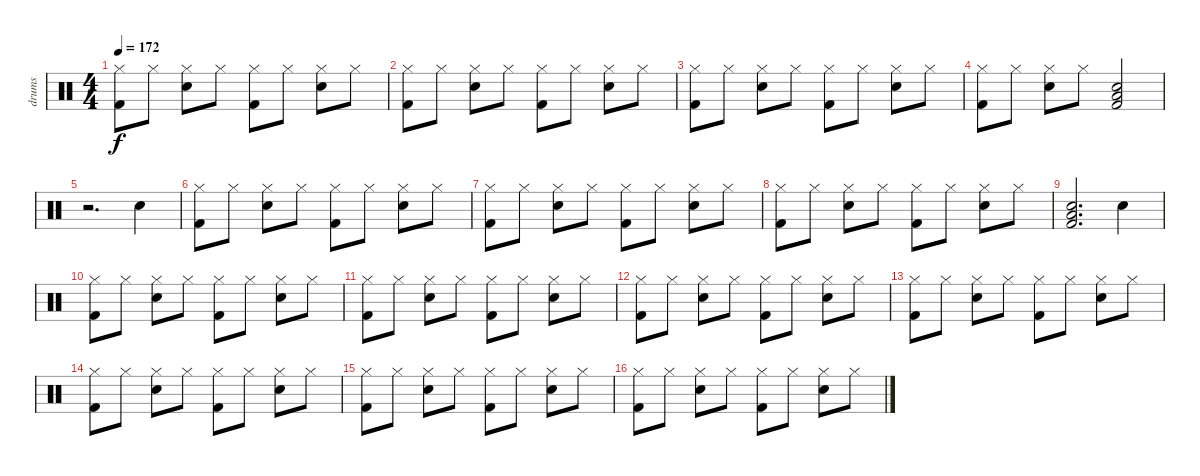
\track ("drums" "drums") {instrument percussion}
\staff {score}
\articulation defaults
\ts (4 4)
\tempo 172
\clef neutral
\ks c
("Hi-Hat (closed)" "Kick (hit) 2").8{dy f} "Hi-Hat (closed)".8 ("Hi-Hat (closed)" "Snare (hit) 2").8 "Hi-Hat (closed)".8 ("Hi-Hat (closed)" "Kick (hit) 2").8 "Hi-Hat (closed)".8 ("Hi-Hat (closed)" "Snare (hit) 2").8 "Hi-Hat (closed)".8 |
("Hi-Hat (closed)" "Kick (hit) 2").8 "Hi-Hat (closed)".8 ("Hi-Hat (closed)" "Snare (hit) 2").8 "Hi-Hat (closed)".8 ("Hi-Hat (closed)" "Kick (hit) 2").8 "Hi-Hat (closed)".8 ("Hi-Hat (closed)" "Snare (hit) 2").8 "Hi-Hat (closed)".8 |
("Hi-Hat (closed)" "Kick (hit) 2").8 "Hi-Hat (closed)".8 ("Hi-Hat (closed)" "Snare (hit) 2").8 "Hi-Hat (closed)".8 ("Hi-Hat (closed)" "Kick (hit) 2").8 "Hi-Hat (closed)".8 ("Hi-Hat (closed)" "Snare (hit) 2").8 "Hi-Hat (closed)".8 |
("Hi-Hat (closed)" "Kick (hit) 2").8 "Hi-Hat (closed)".8 ("Hi-Hat (closed)" "Snare (hit) 2").8 "Hi-Hat (closed)".8 ("Low Floor Tom (hit)" "Snare (hit) 2" "Kick (hit) 2").2 |
r.2{d} "Snare (hit) 2".4 |
("Hi-Hat (closed)" "Kick (hit) 2").8 "Hi-Hat (closed)".8 ("Hi-Hat (closed)" "Snare (hit) 2").8 "Hi-Hat (closed)".8 ("Hi-Hat (closed)" "Kick (hit) 2").8 "Hi-Hat (closed)".8 ("Hi-Hat (closed)" "Snare (hit) 2").8 "Hi-Hat (closed)".8 |
("Hi-Hat (closed)" "Kick (hit) 2").8 "Hi-Hat (closed)".8 ("Hi-Hat (closed)" "Snare (hit) 2").8 "Hi-Hat (closed)".8 ("Hi-Hat (closed)" "Kick (hit) 2").8 "Hi-Hat (closed)".8 ("Hi-Hat (closed)" "Snare (hit) 2").8 "Hi-Hat (closed)".8 |
("Hi-Hat (closed)" "Kick (hit) 2").8 "Hi-Hat (closed)".8 ("Hi-Hat (closed)" "Snare (hit) 2").8 "Hi-Hat (closed)".8 ("Hi-Hat (closed)" "Kick (hit) 2").8 "Hi-Hat (closed)".8 ("Hi-Hat (closed)" "Snare (hit) 2").8 "Hi-Hat (closed)".8 |
("Low Floor Tom (hit)" "Snare (hit) 2" "Kick (hit) 2").2{d} "Snare (hit) 2".4 |
("Hi-Hat (closed)" "Kick (hit) 2").8 "Hi-Hat (closed)".8 ("Hi-Hat (closed)" "Snare (hit) 2").8 "Hi-Hat (closed)".8 ("Hi-Hat (closed)" "Kick (hit) 2").8 "Hi-Hat (closed)".8 ("Hi-Hat (closed)" "Snare (hit) 2").8 "Hi-Hat (closed)".8 |
("Hi-Hat (closed)" "Kick (hit) 2").8 "Hi-Hat (closed)".8 ("Hi-Hat (closed)" "Snare (hit) 2").8 "Hi-Hat (closed)".8 ("Hi-Hat (closed)" "Kick (hit) 2").8 "Hi-Hat (closed)".8 ("Hi-Hat (closed)" "Snare (hit) 2").8 "Hi-Hat (closed)".8 |
("Hi-Hat (closed)" "Kick (hit) 2").8 "Hi-Hat (closed)".8 ("Hi-Hat (closed)" "Snare (hit) 2").8 "Hi-Hat (closed)".8 ("Hi-Hat (closed)" "Kick (hit) 2").8 "Hi-Hat (closed)".8 ("Hi-Hat (closed)" "Snare (hit) 2").8 "Hi-Hat (closed)".8 |
("Hi-Hat (closed)" "Kick (hit) 2").8 "Hi-Hat (closed)".8 ("Hi-Hat (closed)" "Snare (hit) 2").8 "Hi-Hat (closed)".8 ("Hi-Hat (closed)" "Kick (hit) 2").8 "Hi-Hat (closed)".8 ("Hi-Hat (closed)" "Snare (hit) 2").8 "Hi-Hat (closed)".8 |
("Hi-Hat (closed)" "Kick (hit) 2").8 "Hi-Hat (closed)".8 ("Hi-Hat (closed)" "Snare (hit) 2").8 "Hi-Hat (closed)".8 ("Hi-Hat (closed)" "Kick (hit) 2").8 "Hi-Hat (closed)".8 ("Hi-Hat (closed)" "Snare (hit) 2").8 "Hi-Hat (closed)".8 |
("Hi-Hat (closed)" "Kick (hit) 2").8 "Hi-Hat (closed)".8 ("Hi-Hat (closed)" "Snare (hit) 2").8 "Hi-Hat (closed)".8 ("Hi-Hat (closed)" "Kick (hit) 2").8 "Hi-Hat (closed)".8 ("Hi-Hat (closed)" "Snare (hit) 2").8 "Hi-Hat (closed)".8 |
("Hi-Hat (closed)" "Kick (hit) 2").8 "Hi-Hat (closed)".8 ("Hi-Hat (closed)" "Snare (hit) 2").8 "Hi-Hat (closed)".8 ("Hi-Hat (closed)" "Kick (hit) 2").8 "Hi-Hat (closed)".8 ("Hi-Hat (closed)" "Snare (hit) 2").8 "Hi-Hat (closed)".8
